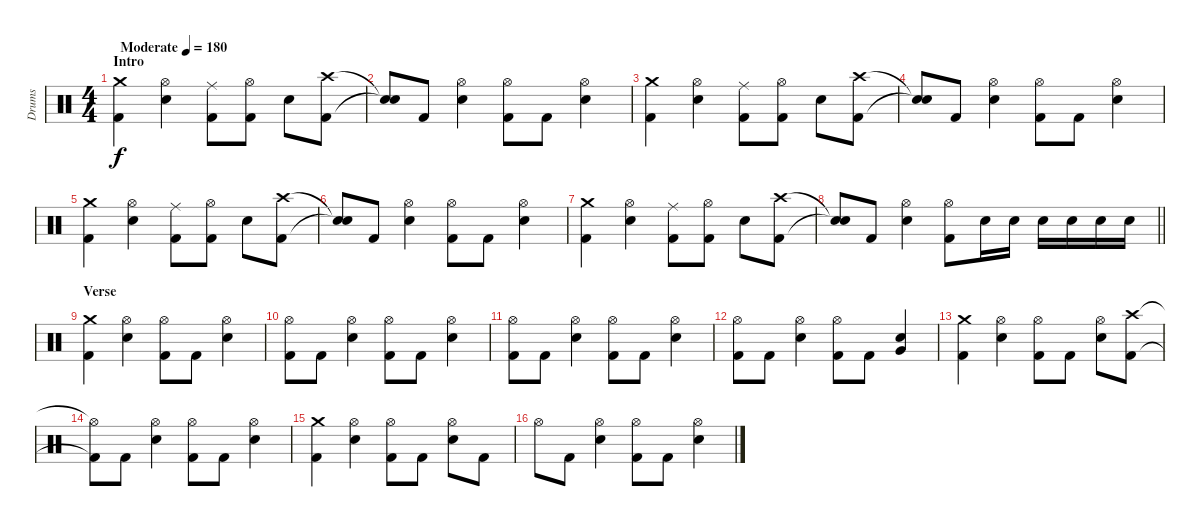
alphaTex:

\track ("Drums" "Drums") {instrument percussion}
\staff {score}
\articulation defaults
\ts (4 4)
\section ("" "Intro")
\tempo (180 "Moderate")
\clef neutral
\ks c
("Crash medium (hit)" "Kick (hit) 2").4{dy f} ("Hi-Hat (open)" "Electric Snare (hit)").4 ("Ride (middle)" "Kick (hit) 2").8 ("Hi-Hat (open)" "Kick (hit) 2").8 "Electric Snare (hit)".8 ("Crash high (hit)" "Kick (hit) 2").8 |
("Snare (hit)"{t} "Snare (hit)"{t}).8 "Kick (hit) 2".8 ("Hi-Hat (open)" "Electric Snare (hit)").4 ("Hi-Hat (open)" "Kick (hit) 2").8 "Kick (hit) 2".8 ("Hi-Hat (open)" "Electric Snare (hit)").4 |
("Crash medium (hit)" "Kick (hit) 2").4 ("Hi-Hat (open)" "Electric Snare (hit)").4 ("Ride (middle)" "Kick (hit) 2").8 ("Hi-Hat (open)" "Kick (hit) 2").8 "Electric Snare (hit)".8 ("Crash high (hit)" "Kick (hit) 2").8 |
("Snare (hit)"{t} "Snare (hit)"{t}).8 "Kick (hit) 2".8 ("Hi-Hat (open)" "Electric Snare (hit)").4 ("Hi-Hat (open)" "Kick (hit) 2").8 "Kick (hit) 2".8 ("Hi-Hat (open)" "Electric Snare (hit)").4 |
("Crash medium (hit)" "Kick (hit) 2").4 ("Hi-Hat (open)" "Electric Snare (hit)").4 ("Ride (middle)" "Kick (hit) 2").8 ("Hi-Hat (open)" "Kick (hit) 2").8 "Electric Snare (hit)".8 ("Crash high (hit)" "Kick (hit) 2").8 |
("Snare (hit)"{t} "Snare (hit)"{t}).8 "Kick (hit) 2".8 ("Hi-Hat (open)" "Electric Snare (hit)").4 ("Hi-Hat (open)" "Kick (hit) 2").8 "Kick (hit) 2".8 ("Hi-Hat (open)" "Electric Snare (hit)").4 |
("Crash medium (hit)" "Kick (hit) 2").4 ("Hi-Hat (open)" "Electric Snare (hit)").4 ("Ride (middle)" "Kick (hit) 2").8 ("Hi-Hat (open)" "Kick (hit) 2").8 "Electric Snare (hit)".8 ("Crash high (hit)" "Kick (hit) 2").8 |
\barLineRight lightlight
("Snare (hit)"{t} "Snare (hit)"{t}).8 "Kick (hit) 2".8 ("Hi-Hat (open)" "Electric Snare (hit)").4 ("Hi-Hat (open)" "Kick (hit) 2").8 "Electric Snare (hit)".16 "Electric Snare (hit)".16 "Electric Snare (hit)".16 "Electric Snare (hit)".16 "Electric Snare (hit)".16 "Electric Snare (hit)".16 |
\section ("" "Verse")
("Crash medium (hit)" "Kick (hit) 2").4 ("Hi-Hat (open)" "Electric Snare (hit)").4 ("Hi-Hat (open)" "Kick (hit) 2").8 "Kick (hit) 2".8 ("Hi-Hat (open)" "Electric Snare (hit)").4 |
("Hi-Hat (open)" "Kick (hit) 2").8 "Kick (hit) 2".8 ("Hi-Hat (open)" "Electric Snare (hit)").4 ("Hi-Hat (open)" "Kick (hit) 2").8 "Kick (hit) 2".8 ("Hi-Hat (open)" "Electric Snare (hit)").4 |
("Hi-Hat (open)" "Kick (hit) 2").8 "Kick (hit) 2".8 ("Hi-Hat (open)" "Electric Snare (hit)").4 ("Hi-Hat (open)" "Kick (hit) 2").8 "Kick (hit) 2".8 ("Hi-Hat (open)" "Electric Snare (hit)").4 |
("Hi-Hat (open)" "Kick (hit) 2").8 "Kick (hit) 2".8 ("Hi-Hat (open)" "Electric Snare (hit)").4 ("Hi-Hat (open)" "Kick (hit) 2").8 "Kick (hit) 2".8 ("Very Low Tom (hit)" "Electric Snare (hit)").4 |
("Crash medium (hit)" "Kick (hit) 2").4 ("Hi-Hat (open)" "Electric Snare (hit)").4 ("Hi-Hat (open)" "Kick (hit) 2").8 "Kick (hit) 2".8 ("Hi-Hat (open)" "Electric Snare (hit)").8 ("Crash high (hit)" "Kick (hit) 2").8 |
("Hi-Hat (open)"{t} "Kick (hit) 2"{t}).8 "Kick (hit) 2".8 ("Hi-Hat (open)" "Electric Snare (hit)").4 ("Hi-Hat (open)" "Kick (hit) 2").8 "Kick (hit) 2".8 ("Hi-Hat (open)" "Electric Snare (hit)").4 |
("Crash medium (hit)" "Kick (hit) 2").4 ("Hi-Hat (open)" "Electric Snare (hit)").4 ("Hi-Hat (open)" "Kick (hit) 2").8 "Kick (hit) 2".8 ("Hi-Hat (open)" "Electric Snare (hit)").8 "Kick (hit) 2".8 |
"Hi-Hat (open)".8 "Kick (hit) 2".8 ("Hi-Hat (open)" "Electric Snare (hit)").4 ("Hi-Hat (open)" "Kick (hit) 2").8 "Kick (hit) 2".8 ("Hi-Hat (open)" "Electric Snare (hit)").4
